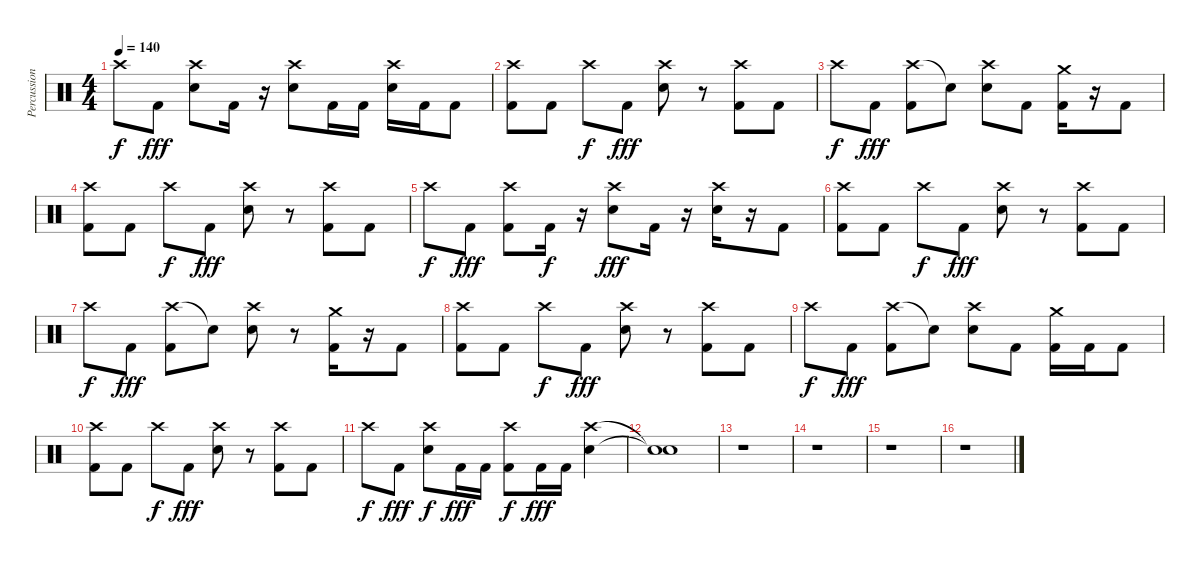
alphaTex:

\track ("Percussion" "Percussion") {instrument percussion}
\staff {score}
\articulation defaults
\ts (4 4)
\tempo 140
\clef neutral
\ks c "Crash high (hit)".8{dy f} "Kick (hit) 2".8{dy fff}
("Crash high (hit)" "Electric Snare (hit)").8 "Kick (hit) 2".16 r.16 ("Crash high (hit)" "Electric Snare (hit)").8 "Kick (hit) 2".16 "Kick (hit) 2".16 ("Crash high (hit)" "Electric Snare (hit)").16 "Kick (hit) 2".16 "Kick (hit) 2".8 |
("Crash high (hit)" "Kick (hit) 2").8 "Kick (hit) 2".8 "Crash high (hit)".8{dy f} "Kick (hit) 2".8{dy fff} ("Crash high (hit)" "Electric Snare (hit)").8 r.8 ("Crash high (hit)" "Kick (hit) 2").8 "Kick (hit) 2".8 |
"Crash high (hit)".8{dy f} "Kick (hit) 2".8{dy fff} ("Crash high (hit)" "Kick (hit) 2").8 "Snare (hit)"{t}.8 ("Crash high (hit)" "Electric Snare (hit)").8 "Kick (hit) 2".8 ("Crash medium (hit)" "Kick (hit) 2").16 r.16 "Kick (hit) 2".8 |
("Crash high (hit)" "Kick (hit) 2").8 "Kick (hit) 2".8 "Crash high (hit)".8{dy f} "Kick (hit) 2".8{dy fff} ("Crash high (hit)" "Electric Snare (hit)").8 r.8 ("Crash high (hit)" "Kick (hit) 2").8 "Kick (hit) 2".8 |
"Crash high (hit)".8{dy f} "Kick (hit) 2".8{dy fff} ("Crash high (hit)" "Kick (hit) 2").8 "Kick (hit) 2".16{dy f} r.16 ("Crash high (hit)" "Electric Snare (hit)").8{dy fff} "Kick (hit) 2".16 r.16 ("Crash high (hit)" "Electric Snare (hit)").16 r.16 "Kick (hit) 2".8 |
("Crash high (hit)" "Kick (hit) 2").8 "Kick (hit) 2".8 "Crash high (hit)".8{dy f} "Kick (hit) 2".8{dy fff} ("Crash high (hit)" "Electric Snare (hit)").8 r.8 ("Crash high (hit)" "Kick (hit) 2").8 "Kick (hit) 2".8 |
"Crash high (hit)".8{dy f} "Kick (hit) 2".8{dy fff} ("Crash high (hit)" "Kick (hit) 2").8 "Snare (hit)"{t}.8 ("Crash high (hit)" "Electric Snare (hit)").8 r.8 ("Crash medium (hit)" "Kick (hit) 2").16 r.16 "Kick (hit) 2".8 |
("Crash high (hit)" "Kick (hit) 2").8 "Kick (hit) 2".8 "Crash high (hit)".8{dy f} "Kick (hit) 2".8{dy fff} ("Crash high (hit)" "Electric Snare (hit)").8 r.8 ("Crash high (hit)" "Kick (hit) 2").8 "Kick (hit) 2".8 |
"Crash high (hit)".8{dy f} "Kick (hit) 2".8{dy fff} ("Crash high (hit)" "Kick (hit) 2").8 "Snare (hit)"{t}.8 ("Crash high (hit)" "Electric Snare (hit)").8 "Kick (hit) 2".8 ("Crash medium (hit)" "Kick (hit) 2").16 "Kick (hit) 2".16 "Kick (hit) 2".8 |
("Crash high (hit)" "Kick (hit) 2").8 "Kick (hit) 2".8 "Crash high (hit)".8{dy f} "Kick (hit) 2".8{dy fff} ("Crash high (hit)" "Electric Snare (hit)").8 r.8 ("Crash high (hit)" "Kick (hit) 2").8 "Kick (hit) 2".8 |
"Crash high (hit)".8{dy f} "Kick (hit) 2".8{dy fff} ("Crash high (hit)" "Electric Snare (hit)").8{dy f} "Kick (hit) 2".16{dy fff} "Kick (hit) 2".16 ("Crash high (hit)" "Kick (hit) 2").8{dy f} "Kick (hit) 2".16{dy fff} "Kick (hit) 2".16 ("Crash high (hit)" "Electric Snare (hit)").4 |
("Snare (hit)"{t} "Snare (hit)"{t}).1 |
r.1 |
r.1 |
r.1 |
r.1
